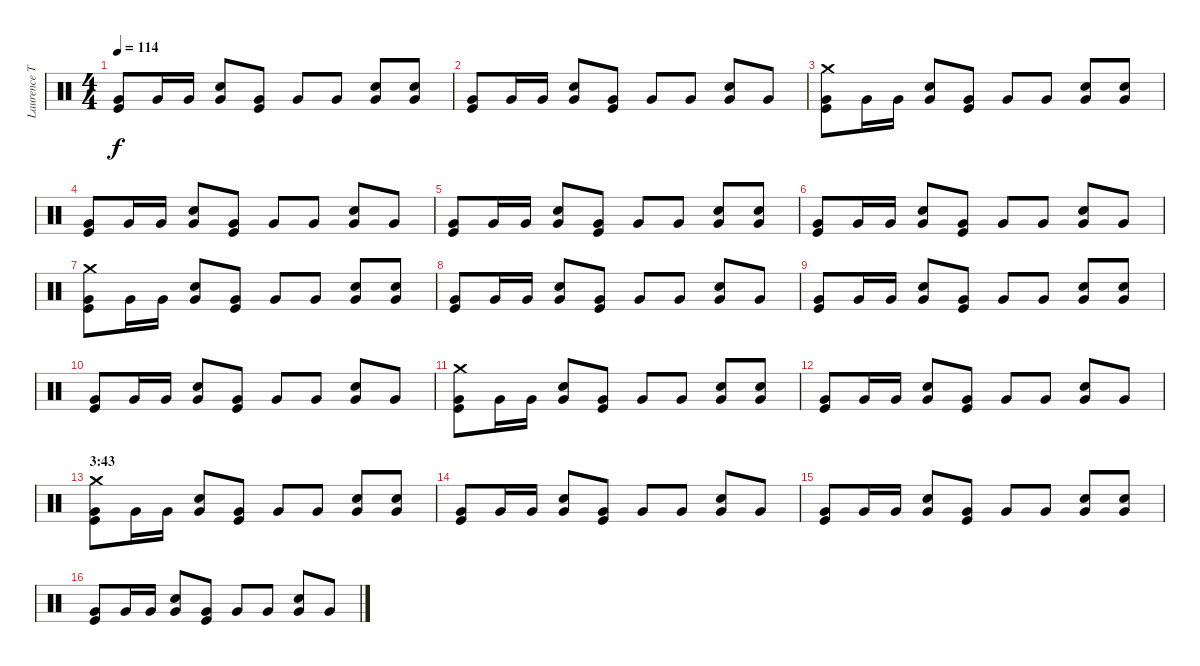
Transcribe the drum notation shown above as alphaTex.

\track ("Laurence Tolhurst (drums)" "Laurence T") {instrument percussion}
\staff {score}
\articulation defaults
\ts (4 4)
\tempo 114
\clef neutral
\ks c
("Very Low Tom (hit)" "Kick (hit)").8{dy f} "Very Low Tom (hit)".16 "Very Low Tom (hit)".16 ("Very Low Tom (hit)" "Snare (hit) 2").8 ("Very Low Tom (hit)" "Kick (hit)").8 "Very Low Tom (hit)".8 "Very Low Tom (hit)".8 ("Very Low Tom (hit)" "Snare (hit) 2").8 ("Very Low Tom (hit)" "Snare (hit) 2").8 |
("Very Low Tom (hit)" "Kick (hit)").8 "Very Low Tom (hit)".16 "Very Low Tom (hit)".16 ("Very Low Tom (hit)" "Snare (hit) 2").8 ("Very Low Tom (hit)" "Kick (hit)").8 "Very Low Tom (hit)".8 "Very Low Tom (hit)".8 ("Very Low Tom (hit)" "Snare (hit) 2").8 "Very Low Tom (hit)".8 |
("Crash medium (hit)" "Very Low Tom (hit)" "Kick (hit)").8 "Very Low Tom (hit)".16 "Very Low Tom (hit)".16 ("Very Low Tom (hit)" "Snare (hit) 2").8 ("Very Low Tom (hit)" "Kick (hit)").8 "Very Low Tom (hit)".8 "Very Low Tom (hit)".8 ("Very Low Tom (hit)" "Snare (hit) 2").8 ("Very Low Tom (hit)" "Snare (hit) 2").8 |
("Very Low Tom (hit)" "Kick (hit)").8 "Very Low Tom (hit)".16 "Very Low Tom (hit)".16 ("Very Low Tom (hit)" "Snare (hit) 2").8 ("Very Low Tom (hit)" "Kick (hit)").8 "Very Low Tom (hit)".8 "Very Low Tom (hit)".8 ("Very Low Tom (hit)" "Snare (hit) 2").8 "Very Low Tom (hit)".8 |
("Very Low Tom (hit)" "Kick (hit)").8 "Very Low Tom (hit)".16 "Very Low Tom (hit)".16 ("Very Low Tom (hit)" "Snare (hit) 2").8 ("Very Low Tom (hit)" "Kick (hit)").8 "Very Low Tom (hit)".8 "Very Low Tom (hit)".8 ("Very Low Tom (hit)" "Snare (hit) 2").8 ("Very Low Tom (hit)" "Snare (hit) 2").8 |
("Very Low Tom (hit)" "Kick (hit)").8 "Very Low Tom (hit)".16 "Very Low Tom (hit)".16 ("Very Low Tom (hit)" "Snare (hit) 2").8 ("Very Low Tom (hit)" "Kick (hit)").8 "Very Low Tom (hit)".8 "Very Low Tom (hit)".8 ("Very Low Tom (hit)" "Snare (hit) 2").8 "Very Low Tom (hit)".8 |
("Crash medium (hit)" "Very Low Tom (hit)" "Kick (hit)").8 "Very Low Tom (hit)".16 "Very Low Tom (hit)".16 ("Very Low Tom (hit)" "Snare (hit) 2").8 ("Very Low Tom (hit)" "Kick (hit)").8 "Very Low Tom (hit)".8 "Very Low Tom (hit)".8 ("Very Low Tom (hit)" "Snare (hit) 2").8 ("Very Low Tom (hit)" "Snare (hit) 2").8 |
("Very Low Tom (hit)" "Kick (hit)").8 "Very Low Tom (hit)".16 "Very Low Tom (hit)".16 ("Very Low Tom (hit)" "Snare (hit) 2").8 ("Very Low Tom (hit)" "Kick (hit)").8 "Very Low Tom (hit)".8 "Very Low Tom (hit)".8 ("Very Low Tom (hit)" "Snare (hit) 2").8 "Very Low Tom (hit)".8 |
("Very Low Tom (hit)" "Kick (hit)").8 "Very Low Tom (hit)".16 "Very Low Tom (hit)".16 ("Very Low Tom (hit)" "Snare (hit) 2").8 ("Very Low Tom (hit)" "Kick (hit)").8 "Very Low Tom (hit)".8 "Very Low Tom (hit)".8 ("Very Low Tom (hit)" "Snare (hit) 2").8 ("Very Low Tom (hit)" "Snare (hit) 2").8 |
("Very Low Tom (hit)" "Kick (hit)").8 "Very Low Tom (hit)".16 "Very Low Tom (hit)".16 ("Very Low Tom (hit)" "Snare (hit) 2").8 ("Very Low Tom (hit)" "Kick (hit)").8 "Very Low Tom (hit)".8 "Very Low Tom (hit)".8 ("Very Low Tom (hit)" "Snare (hit) 2").8 "Very Low Tom (hit)".8 |
("Crash medium (hit)" "Very Low Tom (hit)" "Kick (hit)").8 "Very Low Tom (hit)".16 "Very Low Tom (hit)".16 ("Very Low Tom (hit)" "Snare (hit) 2").8 ("Very Low Tom (hit)" "Kick (hit)").8 "Very Low Tom (hit)".8 "Very Low Tom (hit)".8 ("Very Low Tom (hit)" "Snare (hit) 2").8 ("Very Low Tom (hit)" "Snare (hit) 2").8 |
("Very Low Tom (hit)" "Kick (hit)").8 "Very Low Tom (hit)".16 "Very Low Tom (hit)".16 ("Very Low Tom (hit)" "Snare (hit) 2").8 ("Very Low Tom (hit)" "Kick (hit)").8 "Very Low Tom (hit)".8 "Very Low Tom (hit)".8 ("Very Low Tom (hit)" "Snare (hit) 2").8 "Very Low Tom (hit)".8 |
\section ("" "3:43")
("Crash medium (hit)" "Very Low Tom (hit)" "Kick (hit)").8 "Very Low Tom (hit)".16 "Very Low Tom (hit)".16 ("Very Low Tom (hit)" "Snare (hit) 2").8 ("Very Low Tom (hit)" "Kick (hit)").8 "Very Low Tom (hit)".8 "Very Low Tom (hit)".8 ("Very Low Tom (hit)" "Snare (hit) 2").8 ("Very Low Tom (hit)" "Snare (hit) 2").8 |
("Very Low Tom (hit)" "Kick (hit)").8 "Very Low Tom (hit)".16 "Very Low Tom (hit)".16 ("Very Low Tom (hit)" "Snare (hit) 2").8 ("Very Low Tom (hit)" "Kick (hit)").8 "Very Low Tom (hit)".8 "Very Low Tom (hit)".8 ("Very Low Tom (hit)" "Snare (hit) 2").8 "Very Low Tom (hit)".8 |
("Very Low Tom (hit)" "Kick (hit)").8 "Very Low Tom (hit)".16 "Very Low Tom (hit)".16 ("Very Low Tom (hit)" "Snare (hit) 2").8 ("Very Low Tom (hit)" "Kick (hit)").8 "Very Low Tom (hit)".8 "Very Low Tom (hit)".8 ("Very Low Tom (hit)" "Snare (hit) 2").8 ("Very Low Tom (hit)" "Snare (hit) 2").8 |
("Very Low Tom (hit)" "Kick (hit)").8 "Very Low Tom (hit)".16 "Very Low Tom (hit)".16 ("Very Low Tom (hit)" "Snare (hit) 2").8 ("Very Low Tom (hit)" "Kick (hit)").8 "Very Low Tom (hit)".8 "Very Low Tom (hit)".8 ("Very Low Tom (hit)" "Snare (hit) 2").8 "Very Low Tom (hit)".8
